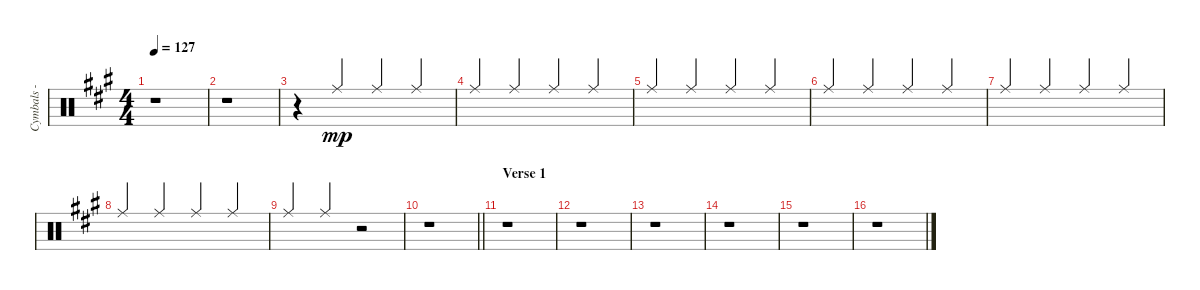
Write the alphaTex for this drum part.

\track ("Cymbals - ride" "Cymbals - ") {instrument percussion}
\staff {score}
\articulation defaults
\ts (4 4)
\tempo 127
\clef neutral
\ks a
r.1{dy mp} |
r.1 |
r.4 "Ride (middle)".4{beam Up} "Ride (middle)".4{beam Up} "Ride (middle)".4{beam Up} |
"Ride (middle)".4{beam Up} "Ride (middle)".4{beam Up} "Ride (middle)".4{beam Up} "Ride (middle)".4{beam Up} |
"Ride (middle)".4{beam Up} "Ride (middle)".4{beam Up} "Ride (middle)".4{beam Up} "Ride (middle)".4{beam Up} |
"Ride (middle)".4{beam Up} "Ride (middle)".4{beam Up} "Ride (middle)".4{beam Up} "Ride (middle)".4{beam Up} |
"Ride (middle)".4{beam Up} "Ride (middle)".4{beam Up} "Ride (middle)".4{beam Up} "Ride (middle)".4{beam Up} |
"Ride (middle)".4{beam Up} "Ride (middle)".4{beam Up} "Ride (middle)".4{beam Up} "Ride (middle)".4{beam Up} |
"Ride (middle)".4{beam Up} "Ride (middle)".4{beam Up} r.2 |
\barLineRight lightlight
r.1 |
\section ("" "Verse 1")
r.1 |
r.1 |
r.1 |
r.1 |
r.1 |
r.1
